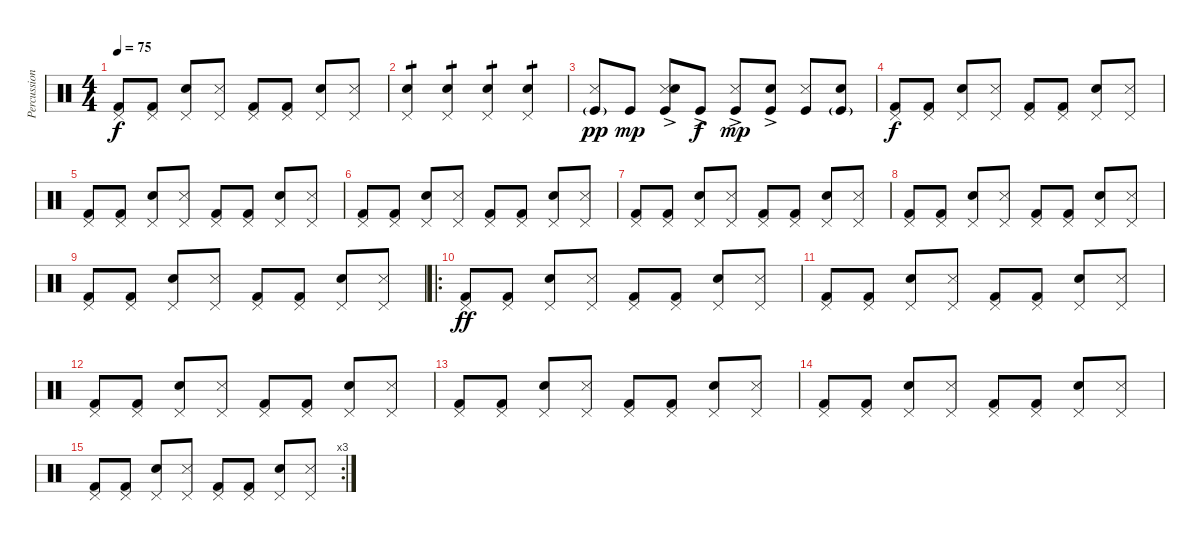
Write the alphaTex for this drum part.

\track ("Percussions" "Percussion") {instrument percussion}
\staff {score}
\articulation defaults
\ts (4 4)
\tempo 75
\clef neutral
\ks c
("Kick (hit) 2" "Pedal Hi-Hat (hit)").8{dy f} ("Kick (hit) 2" "Pedal Hi-Hat (hit)").8 ("Snare (hit) 2" "Pedal Hi-Hat (hit)").8 ("Snare (side stick) 3" "Pedal Hi-Hat (hit)").8 ("Kick (hit) 2" "Pedal Hi-Hat (hit)").8 ("Kick (hit) 2" "Pedal Hi-Hat (hit)").8 ("Snare (hit) 2" "Pedal Hi-Hat (hit)").8 ("Snare (side stick) 3" "Pedal Hi-Hat (hit)").8 |
("Snare (hit) 2" "Pedal Hi-Hat (hit)").4{tp 1} ("Snare (hit) 2" "Pedal Hi-Hat (hit)").4{tp 1} ("Snare (hit) 2" "Pedal Hi-Hat (hit)").4{tp 1} ("Snare (hit) 2" "Pedal Hi-Hat (hit)").4{tp 1} |
("Snare (side stick) 3" "Kick (hit)"{g}).8{dy pp} "Kick (hit)".8{dy mp} ("Snare (side stick) 3" "Kick (hit)"{ac} "Hand Clap (hit)").8 "Kick (hit)"{ac}.8{dy f} ("Snare (side stick) 3" "Kick (hit)"{ac}).8{dy mp} ("Kick (hit)"{ac} "Hand Clap (hit)").8 ("Snare (side stick) 3" "Kick (hit)").8 ("Kick (hit)"{g} "Hand Clap (hit)").8 |
("Kick (hit) 2" "Pedal Hi-Hat (hit)").8{dy f} ("Kick (hit) 2" "Pedal Hi-Hat (hit)").8 ("Snare (hit) 2" "Pedal Hi-Hat (hit)").8 ("Snare (side stick) 3" "Pedal Hi-Hat (hit)").8 ("Kick (hit) 2" "Pedal Hi-Hat (hit)").8 ("Kick (hit) 2" "Pedal Hi-Hat (hit)").8 ("Snare (hit) 2" "Pedal Hi-Hat (hit)").8 ("Snare (side stick) 3" "Pedal Hi-Hat (hit)").8 |
("Kick (hit) 2" "Pedal Hi-Hat (hit)").8 ("Kick (hit) 2" "Pedal Hi-Hat (hit)").8 ("Snare (hit) 2" "Pedal Hi-Hat (hit)").8 ("Snare (side stick) 3" "Pedal Hi-Hat (hit)").8 ("Kick (hit) 2" "Pedal Hi-Hat (hit)").8 ("Kick (hit) 2" "Pedal Hi-Hat (hit)").8 ("Snare (hit) 2" "Pedal Hi-Hat (hit)").8 ("Snare (side stick) 3" "Pedal Hi-Hat (hit)").8 |
("Kick (hit) 2" "Pedal Hi-Hat (hit)").8 ("Kick (hit) 2" "Pedal Hi-Hat (hit)").8 ("Snare (hit) 2" "Pedal Hi-Hat (hit)").8 ("Snare (side stick) 3" "Pedal Hi-Hat (hit)").8 ("Kick (hit) 2" "Pedal Hi-Hat (hit)").8 ("Kick (hit) 2" "Pedal Hi-Hat (hit)").8 ("Snare (hit) 2" "Pedal Hi-Hat (hit)").8 ("Snare (side stick) 3" "Pedal Hi-Hat (hit)").8 |
("Kick (hit) 2" "Pedal Hi-Hat (hit)").8 ("Kick (hit) 2" "Pedal Hi-Hat (hit)").8 ("Snare (hit) 2" "Pedal Hi-Hat (hit)").8 ("Snare (side stick) 3" "Pedal Hi-Hat (hit)").8 ("Kick (hit) 2" "Pedal Hi-Hat (hit)").8 ("Kick (hit) 2" "Pedal Hi-Hat (hit)").8 ("Snare (hit) 2" "Pedal Hi-Hat (hit)").8 ("Snare (side stick) 3" "Pedal Hi-Hat (hit)").8 |
("Kick (hit) 2" "Pedal Hi-Hat (hit)").8 ("Kick (hit) 2" "Pedal Hi-Hat (hit)").8 ("Snare (hit) 2" "Pedal Hi-Hat (hit)").8 ("Snare (side stick) 3" "Pedal Hi-Hat (hit)").8 ("Kick (hit) 2" "Pedal Hi-Hat (hit)").8 ("Kick (hit) 2" "Pedal Hi-Hat (hit)").8 ("Snare (hit) 2" "Pedal Hi-Hat (hit)").8 ("Snare (side stick) 3" "Pedal Hi-Hat (hit)").8 |
("Kick (hit) 2" "Pedal Hi-Hat (hit)").8 ("Kick (hit) 2" "Pedal Hi-Hat (hit)").8 ("Snare (hit) 2" "Pedal Hi-Hat (hit)").8 ("Snare (side stick) 3" "Pedal Hi-Hat (hit)").8 ("Kick (hit) 2" "Pedal Hi-Hat (hit)").8 ("Kick (hit) 2" "Pedal Hi-Hat (hit)").8 ("Snare (hit) 2" "Pedal Hi-Hat (hit)").8 ("Snare (side stick) 3" "Pedal Hi-Hat (hit)").8 |
\ro
("Kick (hit) 2" "Pedal Hi-Hat (hit)").8{dy ff} ("Kick (hit) 2" "Pedal Hi-Hat (hit)").8 ("Snare (hit) 2" "Pedal Hi-Hat (hit)").8 ("Snare (side stick) 3" "Pedal Hi-Hat (hit)").8 ("Kick (hit) 2" "Pedal Hi-Hat (hit)").8 ("Kick (hit) 2" "Pedal Hi-Hat (hit)").8 ("Snare (hit) 2" "Pedal Hi-Hat (hit)").8 ("Snare (side stick) 3" "Pedal Hi-Hat (hit)").8 |
("Kick (hit) 2" "Pedal Hi-Hat (hit)").8 ("Kick (hit) 2" "Pedal Hi-Hat (hit)").8 ("Snare (hit) 2" "Pedal Hi-Hat (hit)").8 ("Snare (side stick) 3" "Pedal Hi-Hat (hit)").8 ("Kick (hit) 2" "Pedal Hi-Hat (hit)").8 ("Kick (hit) 2" "Pedal Hi-Hat (hit)").8 ("Snare (hit) 2" "Pedal Hi-Hat (hit)").8 ("Snare (side stick) 3" "Pedal Hi-Hat (hit)").8 |
("Kick (hit) 2" "Pedal Hi-Hat (hit)").8 ("Kick (hit) 2" "Pedal Hi-Hat (hit)").8 ("Snare (hit) 2" "Pedal Hi-Hat (hit)").8 ("Snare (side stick) 3" "Pedal Hi-Hat (hit)").8 ("Kick (hit) 2" "Pedal Hi-Hat (hit)").8 ("Kick (hit) 2" "Pedal Hi-Hat (hit)").8 ("Snare (hit) 2" "Pedal Hi-Hat (hit)").8 ("Snare (side stick) 3" "Pedal Hi-Hat (hit)").8 |
("Kick (hit) 2" "Pedal Hi-Hat (hit)").8 ("Kick (hit) 2" "Pedal Hi-Hat (hit)").8 ("Snare (hit) 2" "Pedal Hi-Hat (hit)").8 ("Snare (side stick) 3" "Pedal Hi-Hat (hit)").8 ("Kick (hit) 2" "Pedal Hi-Hat (hit)").8 ("Kick (hit) 2" "Pedal Hi-Hat (hit)").8 ("Snare (hit) 2" "Pedal Hi-Hat (hit)").8 ("Snare (side stick) 3" "Pedal Hi-Hat (hit)").8 |
("Kick (hit) 2" "Pedal Hi-Hat (hit)").8 ("Kick (hit) 2" "Pedal Hi-Hat (hit)").8 ("Snare (hit) 2" "Pedal Hi-Hat (hit)").8 ("Snare (side stick) 3" "Pedal Hi-Hat (hit)").8 ("Kick (hit) 2" "Pedal Hi-Hat (hit)").8 ("Kick (hit) 2" "Pedal Hi-Hat (hit)").8 ("Snare (hit) 2" "Pedal Hi-Hat (hit)").8 ("Snare (side stick) 3" "Pedal Hi-Hat (hit)").8 |
\rc 3
("Kick (hit) 2" "Pedal Hi-Hat (hit)").8 ("Kick (hit) 2" "Pedal Hi-Hat (hit)").8 ("Snare (hit) 2" "Pedal Hi-Hat (hit)").8 ("Snare (side stick) 3" "Pedal Hi-Hat (hit)").8 ("Kick (hit) 2" "Pedal Hi-Hat (hit)").8 ("Kick (hit) 2" "Pedal Hi-Hat (hit)").8 ("Snare (hit) 2" "Pedal Hi-Hat (hit)").8 ("Snare (side stick) 3" "Pedal Hi-Hat (hit)").8
